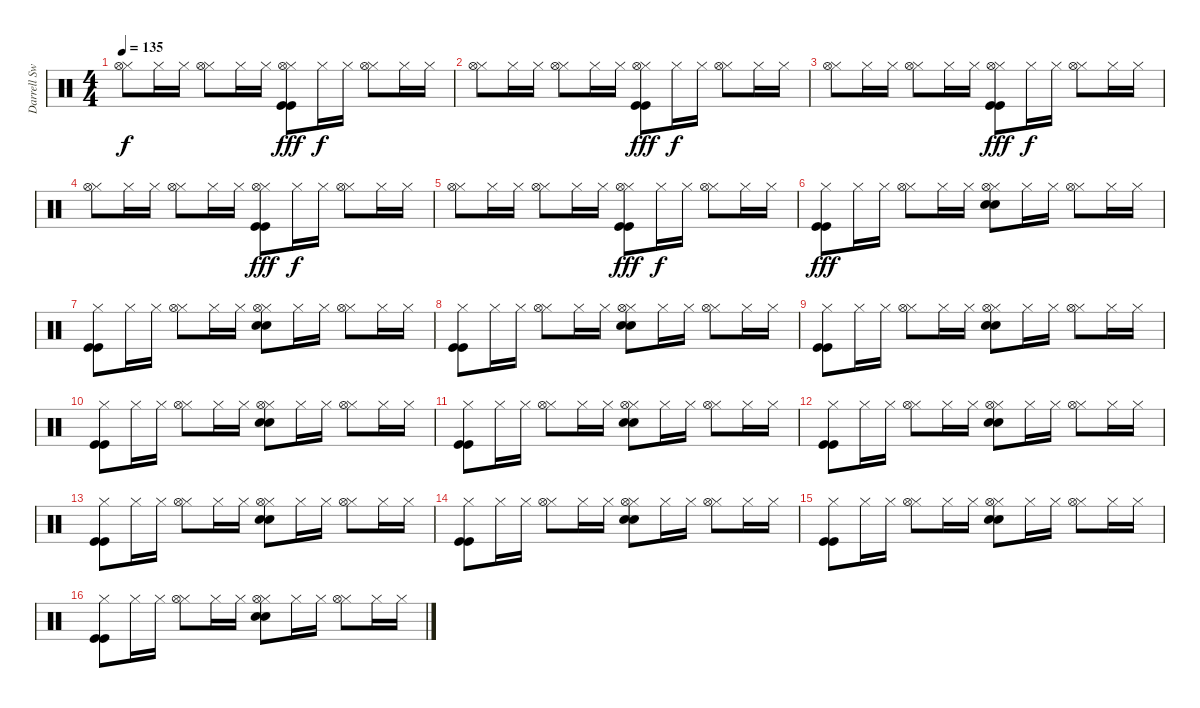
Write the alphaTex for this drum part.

\track ("Darrell Sweet (drums)" "Darrell Sw") {instrument percussion}
\staff {score}
\articulation defaults
\ts (4 4)
\tempo 135
\clef neutral
\ks c
("Hi-Hat (closed)" "Hi-Hat (open)").8{dy f} "Hi-Hat (closed)".16 "Hi-Hat (closed)".16 ("Hi-Hat (closed)" "Hi-Hat (open)").8 "Hi-Hat (closed)".16 "Hi-Hat (closed)".16 ("Hi-Hat (closed)" "Hi-Hat (open)" "Kick (hit)" "Kick (hit)").8{dy fff} "Hi-Hat (closed)".16{dy f} "Hi-Hat (closed)".16 ("Hi-Hat (closed)" "Hi-Hat (open)").8 "Hi-Hat (closed)".16 "Hi-Hat (closed)".16 |
("Hi-Hat (closed)" "Hi-Hat (open)").8 "Hi-Hat (closed)".16 "Hi-Hat (closed)".16 ("Hi-Hat (closed)" "Hi-Hat (open)").8 "Hi-Hat (closed)".16 "Hi-Hat (closed)".16 ("Hi-Hat (closed)" "Hi-Hat (open)" "Kick (hit)" "Kick (hit)").8{dy fff} "Hi-Hat (closed)".16{dy f} "Hi-Hat (closed)".16 ("Hi-Hat (closed)" "Hi-Hat (open)").8 "Hi-Hat (closed)".16 "Hi-Hat (closed)".16 |
("Hi-Hat (closed)" "Hi-Hat (open)").8 "Hi-Hat (closed)".16 "Hi-Hat (closed)".16 ("Hi-Hat (closed)" "Hi-Hat (open)").8 "Hi-Hat (closed)".16 "Hi-Hat (closed)".16 ("Hi-Hat (closed)" "Hi-Hat (open)" "Kick (hit)" "Kick (hit)").8{dy fff} "Hi-Hat (closed)".16{dy f} "Hi-Hat (closed)".16 ("Hi-Hat (closed)" "Hi-Hat (open)").8 "Hi-Hat (closed)".16 "Hi-Hat (closed)".16 |
("Hi-Hat (closed)" "Hi-Hat (open)").8 "Hi-Hat (closed)".16 "Hi-Hat (closed)".16 ("Hi-Hat (closed)" "Hi-Hat (open)").8 "Hi-Hat (closed)".16 "Hi-Hat (closed)".16 ("Hi-Hat (closed)" "Hi-Hat (open)" "Kick (hit)" "Kick (hit)").8{dy fff} "Hi-Hat (closed)".16{dy f} "Hi-Hat (closed)".16 ("Hi-Hat (closed)" "Hi-Hat (open)").8 "Hi-Hat (closed)".16 "Hi-Hat (closed)".16 |
("Hi-Hat (closed)" "Hi-Hat (open)").8 "Hi-Hat (closed)".16 "Hi-Hat (closed)".16 ("Hi-Hat (closed)" "Hi-Hat (open)").8 "Hi-Hat (closed)".16 "Hi-Hat (closed)".16 ("Hi-Hat (closed)" "Hi-Hat (open)" "Kick (hit)" "Kick (hit)").8{dy fff} "Hi-Hat (closed)".16{dy f} "Hi-Hat (closed)".16 ("Hi-Hat (closed)" "Hi-Hat (open)").8 "Hi-Hat (closed)".16 "Hi-Hat (closed)".16 |
("Hi-Hat (closed)" "Kick (hit)" "Kick (hit)").8{dy fff} "Hi-Hat (closed)".16 "Hi-Hat (closed)".16 ("Hi-Hat (closed)" "Hi-Hat (open)").8 "Hi-Hat (closed)".16 "Hi-Hat (closed)".16 ("Hi-Hat (closed)" "Snare (hit) 2" "Electric Snare (hit)" "Hi-Hat (open)").8 "Hi-Hat (closed)".16 "Hi-Hat (closed)".16 ("Hi-Hat (closed)" "Hi-Hat (open)").8 "Hi-Hat (closed)".16 "Hi-Hat (closed)".16 |
("Hi-Hat (closed)" "Kick (hit)" "Kick (hit)").8 "Hi-Hat (closed)".16 "Hi-Hat (closed)".16 ("Hi-Hat (closed)" "Hi-Hat (open)").8 "Hi-Hat (closed)".16 "Hi-Hat (closed)".16 ("Hi-Hat (closed)" "Snare (hit) 2" "Electric Snare (hit)" "Hi-Hat (open)").8 "Hi-Hat (closed)".16 "Hi-Hat (closed)".16 ("Hi-Hat (closed)" "Hi-Hat (open)").8 "Hi-Hat (closed)".16 "Hi-Hat (closed)".16 |
("Hi-Hat (closed)" "Kick (hit)" "Kick (hit)").8 "Hi-Hat (closed)".16 "Hi-Hat (closed)".16 ("Hi-Hat (closed)" "Hi-Hat (open)").8 "Hi-Hat (closed)".16 "Hi-Hat (closed)".16 ("Hi-Hat (closed)" "Snare (hit) 2" "Electric Snare (hit)" "Hi-Hat (open)").8 "Hi-Hat (closed)".16 "Hi-Hat (closed)".16 ("Hi-Hat (closed)" "Hi-Hat (open)").8 "Hi-Hat (closed)".16 "Hi-Hat (closed)".16 |
("Hi-Hat (closed)" "Kick (hit)" "Kick (hit)").8 "Hi-Hat (closed)".16 "Hi-Hat (closed)".16 ("Hi-Hat (closed)" "Hi-Hat (open)").8 "Hi-Hat (closed)".16 "Hi-Hat (closed)".16 ("Hi-Hat (closed)" "Snare (hit) 2" "Electric Snare (hit)" "Hi-Hat (open)").8 "Hi-Hat (closed)".16 "Hi-Hat (closed)".16 ("Hi-Hat (closed)" "Hi-Hat (open)").8 "Hi-Hat (closed)".16 "Hi-Hat (closed)".16 |
("Hi-Hat (closed)" "Kick (hit)" "Kick (hit)").8 "Hi-Hat (closed)".16 "Hi-Hat (closed)".16 ("Hi-Hat (closed)" "Hi-Hat (open)").8 "Hi-Hat (closed)".16 "Hi-Hat (closed)".16 ("Hi-Hat (closed)" "Snare (hit) 2" "Electric Snare (hit)" "Hi-Hat (open)").8 "Hi-Hat (closed)".16 "Hi-Hat (closed)".16 ("Hi-Hat (closed)" "Hi-Hat (open)").8 "Hi-Hat (closed)".16 "Hi-Hat (closed)".16 |
("Hi-Hat (closed)" "Kick (hit)" "Kick (hit)").8 "Hi-Hat (closed)".16 "Hi-Hat (closed)".16 ("Hi-Hat (closed)" "Hi-Hat (open)").8 "Hi-Hat (closed)".16 "Hi-Hat (closed)".16 ("Hi-Hat (closed)" "Snare (hit) 2" "Electric Snare (hit)" "Hi-Hat (open)").8 "Hi-Hat (closed)".16 "Hi-Hat (closed)".16 ("Hi-Hat (closed)" "Hi-Hat (open)").8 "Hi-Hat (closed)".16 "Hi-Hat (closed)".16 |
("Hi-Hat (closed)" "Kick (hit)" "Kick (hit)").8 "Hi-Hat (closed)".16 "Hi-Hat (closed)".16 ("Hi-Hat (closed)" "Hi-Hat (open)").8 "Hi-Hat (closed)".16 "Hi-Hat (closed)".16 ("Hi-Hat (closed)" "Snare (hit) 2" "Electric Snare (hit)" "Hi-Hat (open)").8 "Hi-Hat (closed)".16 "Hi-Hat (closed)".16 ("Hi-Hat (closed)" "Hi-Hat (open)").8 "Hi-Hat (closed)".16 "Hi-Hat (closed)".16 |
("Hi-Hat (closed)" "Kick (hit)" "Kick (hit)").8 "Hi-Hat (closed)".16 "Hi-Hat (closed)".16 ("Hi-Hat (closed)" "Hi-Hat (open)").8 "Hi-Hat (closed)".16 "Hi-Hat (closed)".16 ("Hi-Hat (closed)" "Snare (hit) 2" "Electric Snare (hit)" "Hi-Hat (open)").8 "Hi-Hat (closed)".16 "Hi-Hat (closed)".16 ("Hi-Hat (closed)" "Hi-Hat (open)").8 "Hi-Hat (closed)".16 "Hi-Hat (closed)".16 |
("Hi-Hat (closed)" "Kick (hit)" "Kick (hit)").8 "Hi-Hat (closed)".16 "Hi-Hat (closed)".16 ("Hi-Hat (closed)" "Hi-Hat (open)").8 "Hi-Hat (closed)".16 "Hi-Hat (closed)".16 ("Hi-Hat (closed)" "Snare (hit) 2" "Electric Snare (hit)" "Hi-Hat (open)").8 "Hi-Hat (closed)".16 "Hi-Hat (closed)".16 ("Hi-Hat (closed)" "Hi-Hat (open)").8 "Hi-Hat (closed)".16 "Hi-Hat (closed)".16 |
("Hi-Hat (closed)" "Kick (hit)" "Kick (hit)").8 "Hi-Hat (closed)".16 "Hi-Hat (closed)".16 ("Hi-Hat (closed)" "Hi-Hat (open)").8 "Hi-Hat (closed)".16 "Hi-Hat (closed)".16 ("Hi-Hat (closed)" "Snare (hit) 2" "Electric Snare (hit)" "Hi-Hat (open)").8 "Hi-Hat (closed)".16 "Hi-Hat (closed)".16 ("Hi-Hat (closed)" "Hi-Hat (open)").8 "Hi-Hat (closed)".16 "Hi-Hat (closed)".16 |
("Hi-Hat (closed)" "Kick (hit)" "Kick (hit)").8 "Hi-Hat (closed)".16 "Hi-Hat (closed)".16 ("Hi-Hat (closed)" "Hi-Hat (open)").8 "Hi-Hat (closed)".16 "Hi-Hat (closed)".16 ("Hi-Hat (closed)" "Snare (hit) 2" "Electric Snare (hit)" "Hi-Hat (open)").8 "Hi-Hat (closed)".16 "Hi-Hat (closed)".16 ("Hi-Hat (closed)" "Hi-Hat (open)").8 "Hi-Hat (closed)".16 "Hi-Hat (closed)".16
